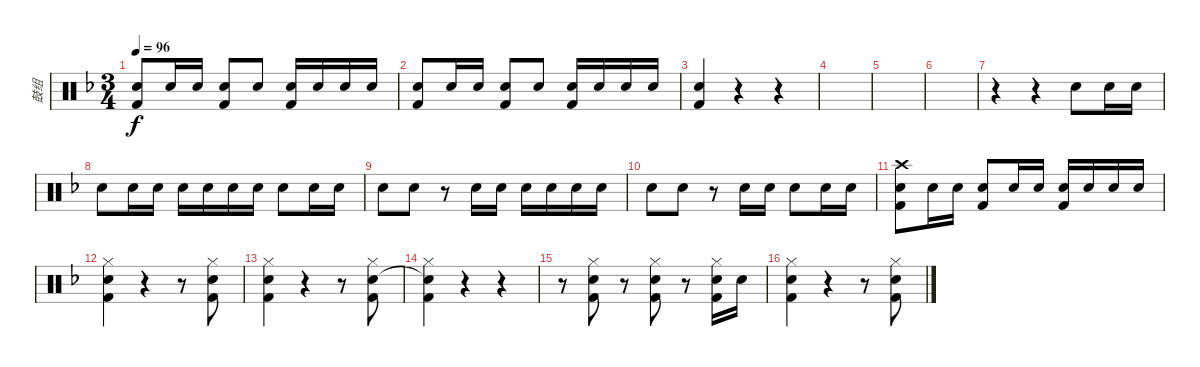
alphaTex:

\track ("鼓组" "鼓组") {instrument percussion}
\staff {score}
\articulation defaults
\ts (3 4)
\tempo 96
\clef neutral
\ks f
("Snare (hit) 2" "Kick (hit) 2").8{dy f} "Snare (hit) 2".16 "Snare (hit) 2".16 ("Snare (hit) 2" "Kick (hit) 2").8 "Snare (hit) 2".8 ("Snare (hit) 2" "Kick (hit) 2").16 "Snare (hit) 2".16 "Snare (hit) 2".16 "Snare (hit) 2".16 |
("Snare (hit) 2" "Kick (hit) 2").8 "Snare (hit) 2".16 "Snare (hit) 2".16 ("Snare (hit) 2" "Kick (hit) 2").8 "Snare (hit) 2".8 ("Snare (hit) 2" "Kick (hit) 2").16 "Snare (hit) 2".16 "Snare (hit) 2".16 "Snare (hit) 2".16 |
("Snare (hit) 2" "Kick (hit) 2").4{volume 13} r.4 r.4 |
|
|
|
r.4 r.4 "Snare (hit) 2".8{volume 10} "Snare (hit) 2".16 "Snare (hit) 2".16 |
"Snare (hit) 2".8 "Snare (hit) 2".16 "Snare (hit) 2".16 "Snare (hit) 2".16 "Snare (hit) 2".16 "Snare (hit) 2".16 "Snare (hit) 2".16 "Snare (hit) 2".8 "Snare (hit) 2".16 "Snare (hit) 2".16 |
"Snare (hit) 2".8 "Snare (hit) 2".8 r.8 "Snare (hit) 2".16 "Snare (hit) 2".16 "Snare (hit) 2".16 "Snare (hit) 2".16 "Snare (hit) 2".16 "Snare (hit) 2".16 |
"Snare (hit) 2".8 "Snare (hit) 2".8 r.8 "Snare (hit) 2".16 "Snare (hit) 2".16 "Snare (hit) 2".8 "Snare (hit) 2".16 "Snare (hit) 2".16 |
("Snare (hit) 2" "Crash high (hit)" "Kick (hit) 2").8 "Snare (hit) 2".16 "Snare (hit) 2".16 ("Snare (hit) 2" "Kick (hit) 2").8 "Snare (hit) 2".16 "Snare (hit) 2".16 ("Snare (hit) 2" "Kick (hit) 2").16 "Snare (hit) 2".16 "Snare (hit) 2".16 "Snare (hit) 2".16 |
("Snare (hit) 2" "Hi-Hat (closed)" "Kick (hit) 2").4{volume 13} r.4 r.8 ("Snare (hit) 2" "Hi-Hat (closed)" "Kick (hit) 2").8 |
("Snare (hit) 2" "Hi-Hat (closed)" "Kick (hit) 2").4 r.4 r.8 ("Snare (hit) 2" "Hi-Hat (closed)" "Kick (hit) 2").8 |
("Snare (hit)"{t} "Hi-Hat (closed)" "Kick (hit) 2").4 r.4 r.4 |
r.8 ("Snare (hit) 2" "Hi-Hat (closed)" "Kick (hit) 2").8 r.8 ("Snare (hit) 2" "Hi-Hat (closed)" "Kick (hit) 2").8 r.8 ("Snare (hit) 2" "Hi-Hat (closed)" "Kick (hit) 2").16 "Snare (hit) 2".16 |
("Snare (hit) 2" "Hi-Hat (closed)" "Kick (hit) 2").4 r.4 r.8 ("Snare (hit) 2" "Hi-Hat (closed)" "Kick (hit) 2").8
